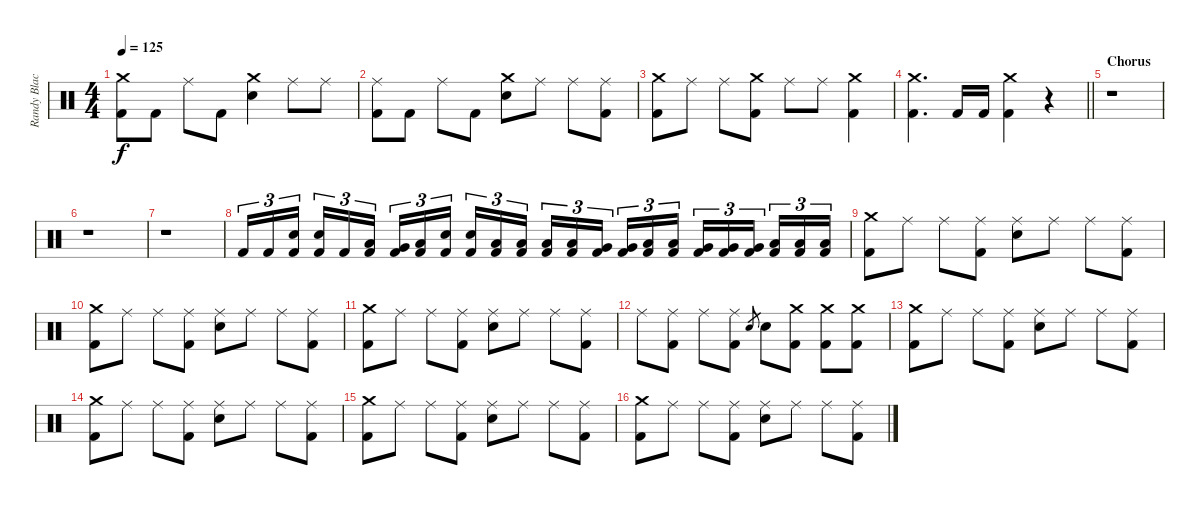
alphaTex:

\track ("Randy Black" "Randy Blac") {instrument percussion}
\staff {score}
\articulation defaults
\ts (4 4)
\tempo 125
\clef neutral
\ks c
("Crash medium (hit)" "Kick (hit) 2").8{dy f} "Kick (hit) 2".8 "Ride (middle)".8 "Kick (hit) 2".8 ("Crash medium (hit)" "Electric Snare (hit)").4 "Ride (middle)".8 "Ride (middle)".8 |
("Ride (middle)" "Kick (hit) 2").8 "Kick (hit) 2".8 "Ride (middle)".8 "Kick (hit) 2".8 ("Crash medium (hit)" "Electric Snare (hit)").8 "Ride (middle)".8 "Ride (middle)".8 ("Ride (middle)" "Kick (hit) 2").8 |
("Crash medium (hit)" "Kick (hit) 2").8 "Ride (middle)".8 "Ride (middle)".8 ("Crash medium (hit)" "Kick (hit) 2").8 "Ride (middle)".8 "Ride (middle)".8 ("Crash medium (hit)" "Kick (hit) 2").4 |
\barLineRight lightlight
("Crash medium (hit)" "Kick (hit) 2").4{d} "Kick (hit) 2".16 "Kick (hit) 2".16 ("Crash medium (hit)" "Kick (hit) 2").4 r.4 |
\section ("" "Chorus")
r.1 |
r.1 |
r.1 |
"Kick (hit) 2".16{tu (3 2)} "Kick (hit) 2".16{tu (3 2)} ("Electric Snare (hit)" "Kick (hit) 2").16{tu (3 2) beam splitsecondary} ("Electric Snare (hit)" "Kick (hit) 2").16{tu (3 2)} "Kick (hit) 2".16{tu (3 2)} ("Low Tom (hit)" "Kick (hit) 2").16{tu (3 2)} ("Very Low Tom (hit)" "Kick (hit) 2").16{tu (3 2)} ("Low Floor Tom (hit)" "Kick (hit) 2").16{tu (3 2)} ("Electric Snare (hit)" "Kick (hit) 2").16{tu (3 2) beam splitsecondary} ("Electric Snare (hit)" "Kick (hit) 2").16{tu (3 2)} ("Low Tom (hit)" "Kick (hit) 2").16{tu (3 2)} ("Low Tom (hit)" "Kick (hit) 2").16{tu (3 2)} ("Low Tom (hit)" "Kick (hit) 2").16{tu (3 2)} ("Low Tom (hit)" "Kick (hit) 2").16{tu (3 2)} ("Very Low Tom (hit)" "Kick (hit) 2").16{tu (3 2) beam splitsecondary} ("Very Low Tom (hit)" "Kick (hit) 2").16{tu (3 2)} ("Low Floor Tom (hit)" "Kick (hit) 2").16{tu (3 2)} ("Low Floor Tom (hit)" "Kick (hit) 2").16{tu (3 2)} ("Very Low Tom (hit)" "Kick (hit) 2").16{tu (3 2)} ("Very Low Tom (hit)" "Kick (hit) 2").16{tu (3 2)} ("Very Low Tom (hit)" "Kick (hit) 2").16{tu (3 2) beam splitsecondary} ("Low Floor Tom (hit)" "Kick (hit) 2").16{tu (3 2)} ("Low Floor Tom (hit)" "Kick (hit) 2").16{tu (3 2)} ("Low Floor Tom (hit)" "Kick (hit) 2").16{tu (3 2)} |
("Crash medium (hit)" "Kick (hit) 2").8 "Ride (middle)".8 "Ride (middle)".8 ("Ride (middle)" "Kick (hit) 2").8 ("Ride (middle)" "Electric Snare (hit)").8 "Ride (middle)".8 "Ride (middle)".8 ("Ride (middle)" "Kick (hit) 2").8 |
("Crash medium (hit)" "Kick (hit) 2").8 "Ride (middle)".8 "Ride (middle)".8 ("Ride (middle)" "Kick (hit) 2").8 ("Ride (middle)" "Electric Snare (hit)").8 "Ride (middle)".8 "Ride (middle)".8 ("Ride (middle)" "Kick (hit) 2").8 |
("Crash medium (hit)" "Kick (hit) 2").8 "Ride (middle)".8 "Ride (middle)".8 ("Ride (middle)" "Kick (hit) 2").8 ("Ride (middle)" "Electric Snare (hit)").8 "Ride (middle)".8 "Ride (middle)".8 ("Ride (middle)" "Kick (hit) 2").8 |
"Ride (middle)".8 ("Ride (middle)" "Kick (hit) 2").8 "Ride (middle)".8 ("Ride (middle)" "Kick (hit) 2").8 "Electric Snare (hit)".8{gr} "Electric Snare (hit)".8 ("Crash medium (hit)" "Kick (hit) 2").8 ("Crash medium (hit)" "Kick (hit) 2").8 ("Crash medium (hit)" "Kick (hit) 2").8 |
("Crash medium (hit)" "Kick (hit) 2").8 "Ride (middle)".8 "Ride (middle)".8 ("Ride (middle)" "Kick (hit) 2").8 ("Ride (middle)" "Electric Snare (hit)").8 "Ride (middle)".8 "Ride (middle)".8 ("Ride (middle)" "Kick (hit) 2").8 |
("Crash medium (hit)" "Kick (hit) 2").8 "Ride (middle)".8 "Ride (middle)".8 ("Ride (middle)" "Kick (hit) 2").8 ("Ride (middle)" "Electric Snare (hit)").8 "Ride (middle)".8 "Ride (middle)".8 ("Ride (middle)" "Kick (hit) 2").8 |
("Crash medium (hit)" "Kick (hit) 2").8 "Ride (middle)".8 "Ride (middle)".8 ("Ride (middle)" "Kick (hit) 2").8 ("Ride (middle)" "Electric Snare (hit)").8 "Ride (middle)".8 "Ride (middle)".8 ("Ride (middle)" "Kick (hit) 2").8 |
("Crash medium (hit)" "Kick (hit) 2").8 "Ride (middle)".8 "Ride (middle)".8 ("Ride (middle)" "Kick (hit) 2").8 ("Ride (middle)" "Electric Snare (hit)").8 "Ride (middle)".8 "Ride (middle)".8 ("Ride (middle)" "Kick (hit) 2").8
